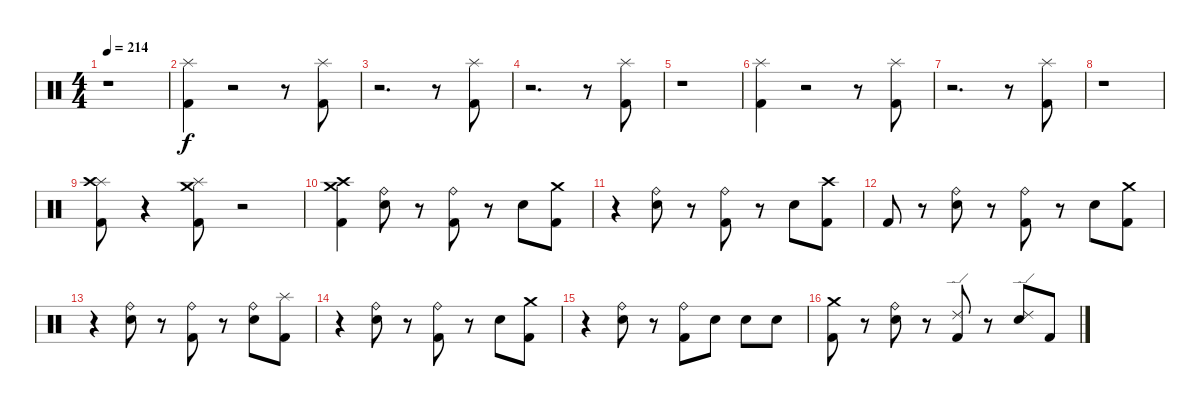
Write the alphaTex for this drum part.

\track "" {instrument percussion}
\staff {score}
\articulation defaults
\ts (4 4)
\tempo 214
\clef neutral
\ks c
r.1{dy f} |
("Splash (hit)" "Kick (hit) 2").4 r.2 r.8 ("Splash (hit)" "Kick (hit) 2").8 |
r.2{d} r.8 ("Splash (hit)" "Kick (hit) 2").8 |
r.2{d} r.8 ("Kick (hit) 2" "Splash (hit)").8 |
r.1 |
("Splash (hit)" "Kick (hit) 2").4 r.2 r.8 ("Splash (hit)" "Kick (hit) 2").8 |
r.2{d} r.8 ("Splash (hit)" "Kick (hit) 2").8 |
r.1 |
("Splash (hit)" "Crash high (hit)" "Kick (hit) 2").8 r.4 ("Splash (hit)" "Crash medium (hit)" "Kick (hit) 2").8 r.2 |
("Crash medium (hit)" "Crash high (hit)" "Kick (hit) 2").4 ("Ride (bell)" "Electric Snare (hit)").8 r.8 ("Ride (bell)" "Kick (hit) 2").8 r.8 "Electric Snare (hit)".8 ("Crash medium (hit)" "Kick (hit) 2").8 |
r.4 ("Ride (bell)" "Electric Snare (hit)").8 r.8 ("Ride (bell)" "Kick (hit) 2").8 r.8 "Electric Snare (hit)".8 ("Crash high (hit)" "Kick (hit) 2").8 |
"Kick (hit) 2".8 r.8 ("Ride (bell)" "Electric Snare (hit)").8 r.8 ("Ride (bell)" "Kick (hit) 2").8 r.8 "Electric Snare (hit)".8 ("Crash medium (hit)" "Kick (hit) 2").8 |
r.4 ("Ride (bell)" "Electric Snare (hit)").8 r.8 ("Ride (bell)" "Kick (hit) 2").8 r.8 ("Ride (bell)" "Electric Snare (hit)").8 ("Splash (hit)" "Kick (hit) 2").8 |
r.4 ("Ride (bell)" "Electric Snare (hit)").8 r.8 ("Ride (bell)" "Kick (hit) 2").8 r.8 "Electric Snare (hit)".8 ("Crash medium (hit)" "Kick (hit) 2").8 |
r.4 ("Ride (bell)" "Electric Snare (hit)").8 r.8 ("Ride (bell)" "Kick (hit) 2").8 "Snare (hit) 2".8 "Snare (hit) 2".8 "Snare (hit) 2".8 |
("Crash medium (hit)" "Kick (hit) 2").8 r.8 ("Ride (bell)" "Electric Snare (hit)").8 r.8 ("Ride (edge) 2" "Kick (hit) 2").8 r.8 ("Ride (edge) 2" "Electric Snare (hit)").8 "Kick (hit) 2".8
